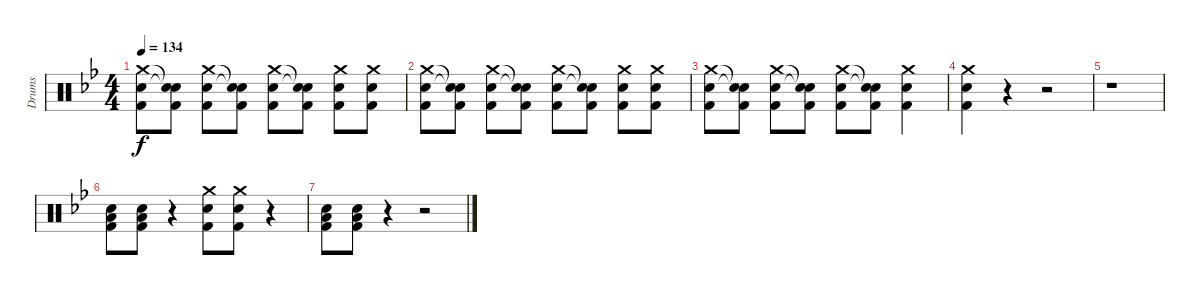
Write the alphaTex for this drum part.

\track ("Drums" "Drums") {instrument percussion}
\staff {score}
\articulation defaults
\ts (4 4)
\tempo 134
\clef neutral
\ks gminor
("Crash medium (hit)" "Electric Snare (hit)" "Kick (hit) 2").8{dy f} ("Snare (hit)"{t} "Snare (hit)"{t} "Kick (hit) 2").8 ("Crash medium (hit)" "Electric Snare (hit)" "Kick (hit) 2").8 ("Snare (hit)"{t} "Snare (hit)"{t} "Kick (hit) 2").8 ("Crash medium (hit)" "Electric Snare (hit)" "Kick (hit) 2").8 ("Snare (hit)"{t} "Snare (hit)"{t} "Kick (hit) 2").8 ("Crash medium (hit)" "Electric Snare (hit)" "Kick (hit) 2").8 ("Crash medium (hit)" "Electric Snare (hit)" "Kick (hit) 2").8 |
("Crash medium (hit)" "Electric Snare (hit)" "Kick (hit) 2").8 ("Snare (hit)"{t} "Snare (hit)"{t} "Kick (hit) 2").8 ("Crash medium (hit)" "Electric Snare (hit)" "Kick (hit) 2").8 ("Snare (hit)"{t} "Snare (hit)"{t} "Kick (hit) 2").8 ("Crash medium (hit)" "Electric Snare (hit)" "Kick (hit) 2").8 ("Snare (hit)"{t} "Snare (hit)"{t} "Kick (hit) 2").8 ("Crash medium (hit)" "Electric Snare (hit)" "Kick (hit) 2").8 ("Crash medium (hit)" "Electric Snare (hit)" "Kick (hit) 2").8 |
("Crash medium (hit)" "Electric Snare (hit)" "Kick (hit) 2").8 ("Snare (hit)"{t} "Snare (hit)"{t} "Kick (hit) 2").8 ("Crash medium (hit)" "Electric Snare (hit)" "Kick (hit) 2").8 ("Snare (hit)"{t} "Snare (hit)"{t} "Kick (hit) 2").8 ("Crash medium (hit)" "Electric Snare (hit)" "Kick (hit) 2").8 ("Snare (hit)"{t} "Snare (hit)"{t} "Kick (hit) 2").8 ("Crash medium (hit)" "Electric Snare (hit)" "Kick (hit) 2").4 |
("Crash medium (hit)" "Electric Snare (hit)" "Kick (hit) 2").4 r.4 r.2 |
r.1 |
("Electric Snare (hit)" "Low Floor Tom (hit)" "Kick (hit) 2").8 ("Electric Snare (hit)" "Low Floor Tom (hit)" "Kick (hit) 2").8 r.4 ("Crash medium (hit)" "Electric Snare (hit)" "Kick (hit) 2").8 ("Crash medium (hit)" "Electric Snare (hit)" "Kick (hit) 2").8 r.4 |
("Electric Snare (hit)" "Low Floor Tom (hit)" "Kick (hit) 2").8 ("Electric Snare (hit)" "Low Floor Tom (hit)" "Kick (hit) 2").8 r.4 r.2
